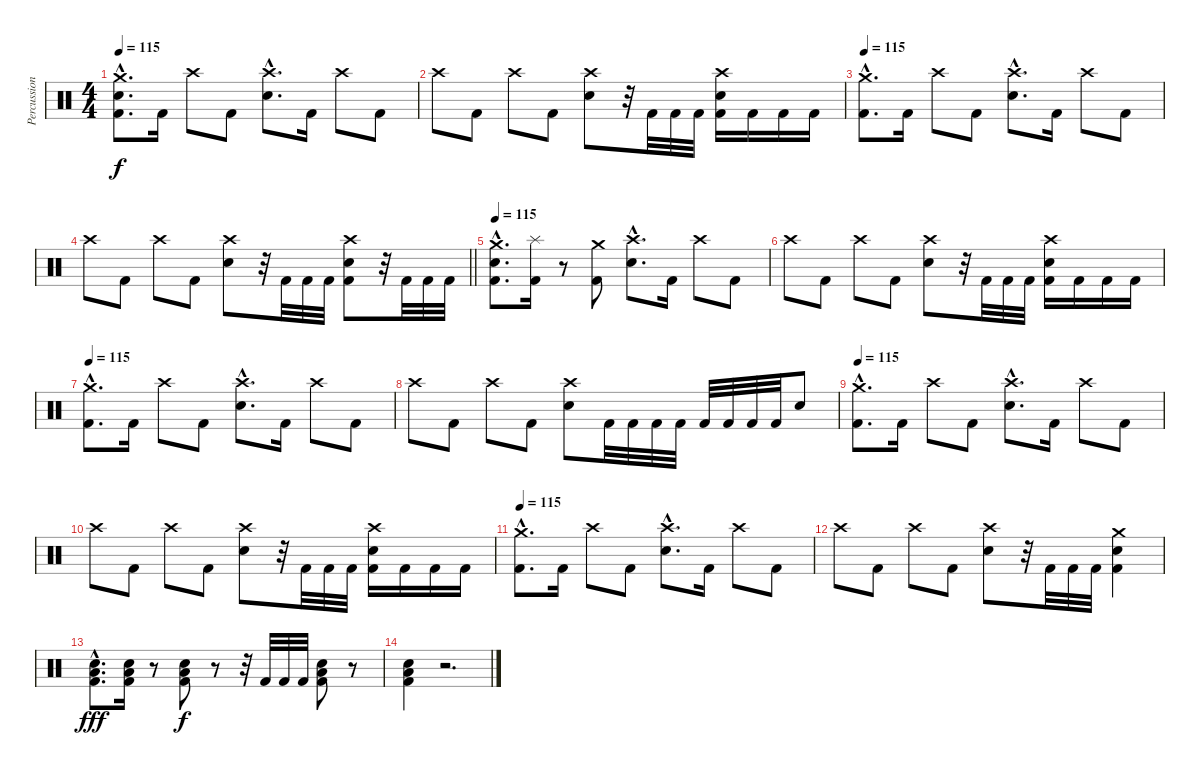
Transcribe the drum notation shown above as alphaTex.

\track ("Percussion" "Percussion") {instrument percussion}
\staff {score}
\articulation defaults
\ts (4 4)
\tempo 115
\clef neutral
\ks c
("Crash medium (hit)"{hac} "Snare (hit) 2"{hac} "Kick (hit) 2"{hac}).8{d dy f} "Kick (hit) 2".16 "Crash high (hit)".8 "Kick (hit) 2".8 ("Crash high (hit)"{hac} "Snare (hit) 2"{hac}).8{d} "Kick (hit) 2".16 "Crash high (hit)".8 "Kick (hit) 2".8 |
"Crash high (hit)".8 "Kick (hit) 2".8 "Crash high (hit)".8 "Kick (hit) 2".8 ("Crash high (hit)" "Snare (hit) 2").8 r.32 "Kick (hit) 2".32 "Kick (hit) 2".32 "Kick (hit) 2".32 ("Crash high (hit)" "Snare (hit) 2" "Kick (hit) 2").16 "Kick (hit) 2".16 "Kick (hit) 2".16 "Kick (hit) 2".16 |
\tempo 115
("Crash medium (hit)"{hac} "Kick (hit) 2"{hac}).8{d} "Kick (hit) 2".16 "Crash high (hit)".8 "Kick (hit) 2".8 ("Crash high (hit)"{hac} "Snare (hit) 2"{hac}).8{d} "Kick (hit) 2".16 "Crash high (hit)".8 "Kick (hit) 2".8 |
\barLineRight lightlight "Crash high (hit)".8 "Kick (hit) 2".8 "Crash high (hit)".8 "Kick (hit) 2".8
("Crash high (hit)" "Snare (hit) 2").8 r.32 "Kick (hit) 2".32 "Kick (hit) 2".32 "Kick (hit) 2".32 ("Crash high (hit)" "Snare (hit) 2" "Kick (hit) 2").8 r.32 "Kick (hit) 2".32 "Kick (hit) 2".32 "Kick (hit) 2".32 |
\tempo 115
("Crash medium (hit)"{hac} "Snare (hit) 2"{hac} "Kick (hit) 2"{hac}).8{d} ("Splash (hit)" "Kick (hit) 2").16 r.8 ("Crash medium (hit)" "Kick (hit) 2").8 ("Crash high (hit)"{hac} "Snare (hit) 2"{hac}).8{d} "Kick (hit) 2".16 "Crash high (hit)".8 "Kick (hit) 2".8 |
"Crash high (hit)".8 "Kick (hit) 2".8 "Crash high (hit)".8 "Kick (hit) 2".8 ("Crash high (hit)" "Snare (hit) 2").8 r.32 "Kick (hit) 2".32 "Kick (hit) 2".32 "Kick (hit) 2".32 ("Crash high (hit)" "Snare (hit) 2" "Kick (hit) 2").16 "Kick (hit) 2".16 "Kick (hit) 2".16 "Kick (hit) 2".16 |
\tempo 115
("Crash medium (hit)"{hac} "Kick (hit) 2"{hac}).8{d} "Kick (hit) 2".16 "Crash high (hit)".8 "Kick (hit) 2".8 ("Crash high (hit)"{hac} "Snare (hit) 2"{hac}).8{d} "Kick (hit) 2".16 "Crash high (hit)".8 "Kick (hit) 2".8 |
"Crash high (hit)".8 "Kick (hit) 2".8 "Crash high (hit)".8 "Kick (hit) 2".8 ("Crash high (hit)" "Snare (hit) 2").8 "Kick (hit) 2".32 "Kick (hit) 2".32 "Kick (hit) 2".32 "Kick (hit) 2".32 "Kick (hit) 2".32 "Kick (hit) 2".32 "Kick (hit) 2".32 "Kick (hit) 2".32 "Snare (hit) 2".8 |
\tempo 115
("Crash medium (hit)"{hac} "Kick (hit) 2"{hac}).8{d} "Kick (hit) 2".16 "Crash high (hit)".8 "Kick (hit) 2".8 ("Crash high (hit)"{hac} "Snare (hit) 2"{hac}).8{d} "Kick (hit) 2".16 "Crash high (hit)".8 "Kick (hit) 2".8 |
"Crash high (hit)".8 "Kick (hit) 2".8 "Crash high (hit)".8 "Kick (hit) 2".8 ("Crash high (hit)" "Snare (hit) 2").8 r.32 "Kick (hit) 2".32 "Kick (hit) 2".32 "Kick (hit) 2".32 ("Crash high (hit)" "Snare (hit) 2" "Kick (hit) 2").16 "Kick (hit) 2".16 "Kick (hit) 2".16 "Kick (hit) 2".16 |
\tempo 115
("Crash medium (hit)"{hac} "Kick (hit) 2"{hac}).8{d} "Kick (hit) 2".16 "Crash high (hit)".8 "Kick (hit) 2".8 ("Crash high (hit)"{hac} "Snare (hit) 2"{hac}).8{d} "Kick (hit) 2".16 "Crash high (hit)".8 "Kick (hit) 2".8 |
"Crash high (hit)".8 "Kick (hit) 2".8 "Crash high (hit)".8 "Kick (hit) 2".8 ("Crash high (hit)" "Snare (hit) 2").8 r.32 "Kick (hit) 2".32 "Kick (hit) 2".32 "Kick (hit) 2".32 ("Crash medium (hit)" "Snare (hit) 2" "Kick (hit) 2").4 |
("Snare (hit) 2"{hac} "Low Tom (hit)"{hac} "Kick (hit) 2"{hac}).8{d dy fff} ("Snare (hit) 2" "Low Tom (hit)" "Kick (hit) 2").16 r.8 ("Snare (hit) 2" "Low Tom (hit)" "Kick (hit) 2").8{dy f} r.8 r.32 "Kick (hit) 2".32 "Kick (hit) 2".32 "Kick (hit) 2".32 ("Snare (hit) 2" "Low Tom (hit)" "Kick (hit) 2").8 r.8 |
("Snare (hit) 2" "Low Tom (hit)" "Kick (hit) 2").4 r.2{d}
